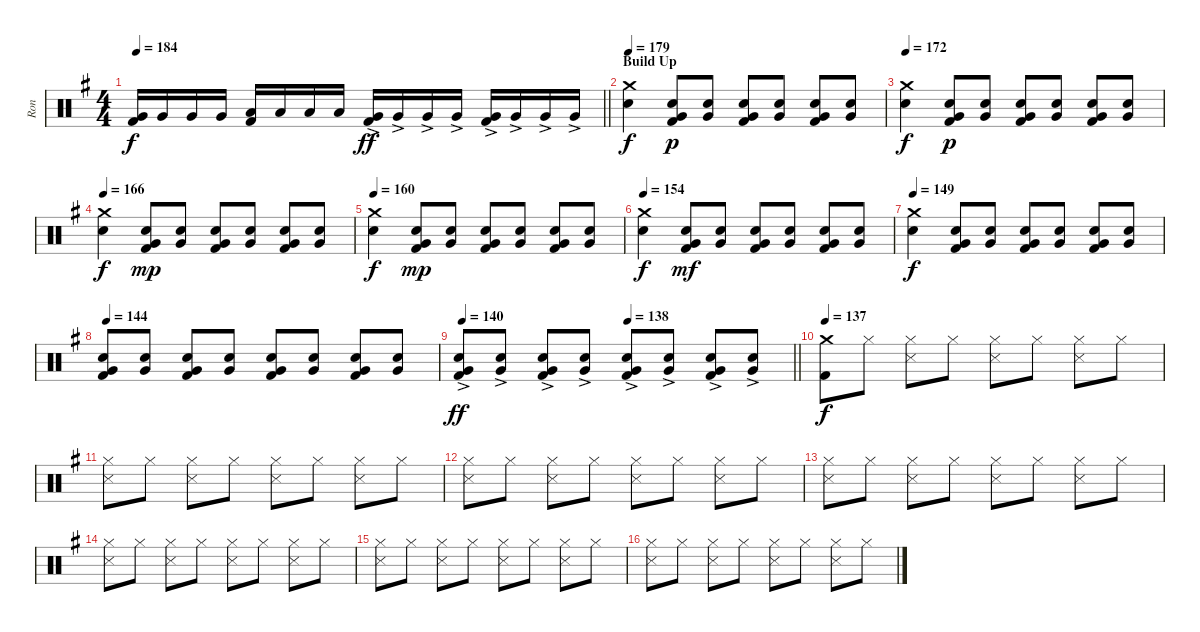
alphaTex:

\track ("Ron" "Ron") {instrument percussion}
\staff {score}
\articulation defaults
\ts (4 4)
\tempo 184
\clef neutral
\barLineRight lightlight
\ks eminor
("Very Low Tom (hit)" "Kick (hit) 2").16{dy f} "Very Low Tom (hit)".16 "Very Low Tom (hit)".16 "Very Low Tom (hit)".16 ("Low Tom (hit)" "Kick (hit) 2").16 "Low Tom (hit)".16 "Low Tom (hit)".16 "Low Tom (hit)".16 ("Very Low Tom (hit)"{ac} "Kick (hit) 2"{ac}).16{dy ff} "Very Low Tom (hit)"{ac}.16 "Very Low Tom (hit)"{ac}.16 "Very Low Tom (hit)"{ac}.16 ("Very Low Tom (hit)"{ac} "Kick (hit) 2"{ac}).16 "Very Low Tom (hit)"{ac}.16 "Very Low Tom (hit)"{ac}.16 "Very Low Tom (hit)"{ac}.16 |
\section ("" "Build Up")
\tempo 179
("Crash medium (hit)" "Electric Snare (hit)").4{dy f} ("Electric Snare (hit)" "Very Low Tom (hit)" "Kick (hit) 2").8{dy p} ("Electric Snare (hit)" "Very Low Tom (hit)").8 ("Electric Snare (hit)" "Very Low Tom (hit)" "Kick (hit) 2").8 ("Electric Snare (hit)" "Very Low Tom (hit)").8 ("Electric Snare (hit)" "Very Low Tom (hit)" "Kick (hit) 2").8 ("Electric Snare (hit)" "Very Low Tom (hit)").8 |
\tempo 172
("Crash medium (hit)" "Electric Snare (hit)").4{dy f} ("Electric Snare (hit)" "Very Low Tom (hit)" "Kick (hit) 2").8{dy p} ("Electric Snare (hit)" "Very Low Tom (hit)").8 ("Electric Snare (hit)" "Very Low Tom (hit)" "Kick (hit) 2").8 ("Electric Snare (hit)" "Very Low Tom (hit)").8 ("Electric Snare (hit)" "Very Low Tom (hit)" "Kick (hit) 2").8 ("Electric Snare (hit)" "Very Low Tom (hit)").8 |
\tempo 166
("Crash medium (hit)" "Electric Snare (hit)").4{dy f} ("Electric Snare (hit)" "Very Low Tom (hit)" "Kick (hit) 2").8{dy mp} ("Electric Snare (hit)" "Very Low Tom (hit)").8 ("Electric Snare (hit)" "Very Low Tom (hit)" "Kick (hit) 2").8 ("Electric Snare (hit)" "Very Low Tom (hit)").8 ("Electric Snare (hit)" "Very Low Tom (hit)" "Kick (hit) 2").8 ("Electric Snare (hit)" "Very Low Tom (hit)").8 |
\tempo 160
("Crash medium (hit)" "Electric Snare (hit)").4{dy f} ("Electric Snare (hit)" "Very Low Tom (hit)" "Kick (hit) 2").8{dy mp} ("Electric Snare (hit)" "Very Low Tom (hit)").8 ("Electric Snare (hit)" "Very Low Tom (hit)" "Kick (hit) 2").8 ("Electric Snare (hit)" "Very Low Tom (hit)").8 ("Electric Snare (hit)" "Very Low Tom (hit)" "Kick (hit) 2").8 ("Electric Snare (hit)" "Very Low Tom (hit)").8 |
\tempo 154
("Crash medium (hit)" "Electric Snare (hit)").4{dy f} ("Electric Snare (hit)" "Very Low Tom (hit)" "Kick (hit) 2").8{dy mf} ("Electric Snare (hit)" "Very Low Tom (hit)").8 ("Electric Snare (hit)" "Very Low Tom (hit)" "Kick (hit) 2").8 ("Electric Snare (hit)" "Very Low Tom (hit)").8 ("Electric Snare (hit)" "Very Low Tom (hit)" "Kick (hit) 2").8 ("Electric Snare (hit)" "Very Low Tom (hit)").8 |
\tempo 149
("Crash medium (hit)" "Electric Snare (hit)").4{dy f} ("Electric Snare (hit)" "Very Low Tom (hit)" "Kick (hit) 2").8 ("Electric Snare (hit)" "Very Low Tom (hit)").8 ("Electric Snare (hit)" "Very Low Tom (hit)" "Kick (hit) 2").8 ("Electric Snare (hit)" "Very Low Tom (hit)").8 ("Electric Snare (hit)" "Very Low Tom (hit)" "Kick (hit) 2").8 ("Electric Snare (hit)" "Very Low Tom (hit)").8 |
\tempo 144
("Electric Snare (hit)" "Very Low Tom (hit)" "Kick (hit) 2").8 ("Electric Snare (hit)" "Very Low Tom (hit)").8 ("Electric Snare (hit)" "Very Low Tom (hit)" "Kick (hit) 2").8 ("Electric Snare (hit)" "Very Low Tom (hit)").8 ("Electric Snare (hit)" "Very Low Tom (hit)" "Kick (hit) 2").8 ("Electric Snare (hit)" "Very Low Tom (hit)").8 ("Electric Snare (hit)" "Very Low Tom (hit)" "Kick (hit) 2").8 ("Electric Snare (hit)" "Very Low Tom (hit)").8 |
\tempo 140
\tempo (138 0.5)
\barLineRight lightlight
("Electric Snare (hit)"{ac} "Very Low Tom (hit)"{ac} "Kick (hit) 2"{ac}).8{dy ff} ("Electric Snare (hit)"{ac} "Very Low Tom (hit)"{ac}).8 ("Electric Snare (hit)"{ac} "Very Low Tom (hit)"{ac} "Kick (hit) 2"{ac}).8 ("Electric Snare (hit)"{ac} "Very Low Tom (hit)"{ac}).8 ("Electric Snare (hit)"{ac} "Very Low Tom (hit)"{ac} "Kick (hit) 2"{ac}).8 ("Electric Snare (hit)"{ac} "Very Low Tom (hit)"{ac}).8 ("Electric Snare (hit)"{ac} "Very Low Tom (hit)"{ac} "Kick (hit) 2"{ac}).8 ("Electric Snare (hit)"{ac} "Very Low Tom (hit)"{ac}).8 |
\tempo 137
("Crash medium (hit)" "Kick (hit) 2").8{dy f} "Hi-Hat (closed)".8 ("Hi-Hat (closed)" "Snare (side stick) 3").8 "Hi-Hat (closed)".8 ("Hi-Hat (closed)" "Snare (side stick) 3").8 "Hi-Hat (closed)".8 ("Hi-Hat (closed)" "Snare (side stick) 3").8 "Hi-Hat (closed)".8 |
("Hi-Hat (closed)" "Snare (side stick) 3").8 "Hi-Hat (closed)".8 ("Hi-Hat (closed)" "Snare (side stick) 3").8 "Hi-Hat (closed)".8 ("Hi-Hat (closed)" "Snare (side stick) 3").8 "Hi-Hat (closed)".8 ("Hi-Hat (closed)" "Snare (side stick) 3").8 "Hi-Hat (closed)".8 |
("Hi-Hat (closed)" "Snare (side stick) 3").8 "Hi-Hat (closed)".8 ("Hi-Hat (closed)" "Snare (side stick) 3").8 "Hi-Hat (closed)".8 ("Hi-Hat (closed)" "Snare (side stick) 3").8 "Hi-Hat (closed)".8 ("Hi-Hat (closed)" "Snare (side stick) 3").8 "Hi-Hat (closed)".8 |
("Hi-Hat (closed)" "Snare (side stick) 3").8 "Hi-Hat (closed)".8 ("Hi-Hat (closed)" "Snare (side stick) 3").8 "Hi-Hat (closed)".8 ("Hi-Hat (closed)" "Snare (side stick) 3").8 "Hi-Hat (closed)".8 ("Hi-Hat (closed)" "Snare (side stick) 3").8 "Hi-Hat (closed)".8 |
("Hi-Hat (closed)" "Snare (side stick) 3").8 "Hi-Hat (closed)".8 ("Hi-Hat (closed)" "Snare (side stick) 3").8 "Hi-Hat (closed)".8 ("Hi-Hat (closed)" "Snare (side stick) 3").8 "Hi-Hat (closed)".8 ("Hi-Hat (closed)" "Snare (side stick) 3").8 "Hi-Hat (closed)".8 |
("Hi-Hat (closed)" "Snare (side stick) 3").8 "Hi-Hat (closed)".8 ("Hi-Hat (closed)" "Snare (side stick) 3").8 "Hi-Hat (closed)".8 ("Hi-Hat (closed)" "Snare (side stick) 3").8 "Hi-Hat (closed)".8 ("Hi-Hat (closed)" "Snare (side stick) 3").8 "Hi-Hat (closed)".8 |
("Hi-Hat (closed)" "Snare (side stick) 3").8 "Hi-Hat (closed)".8 ("Hi-Hat (closed)" "Snare (side stick) 3").8 "Hi-Hat (closed)".8 ("Hi-Hat (closed)" "Snare (side stick) 3").8 "Hi-Hat (closed)".8 ("Hi-Hat (closed)" "Snare (side stick) 3").8 "Hi-Hat (closed)".8
